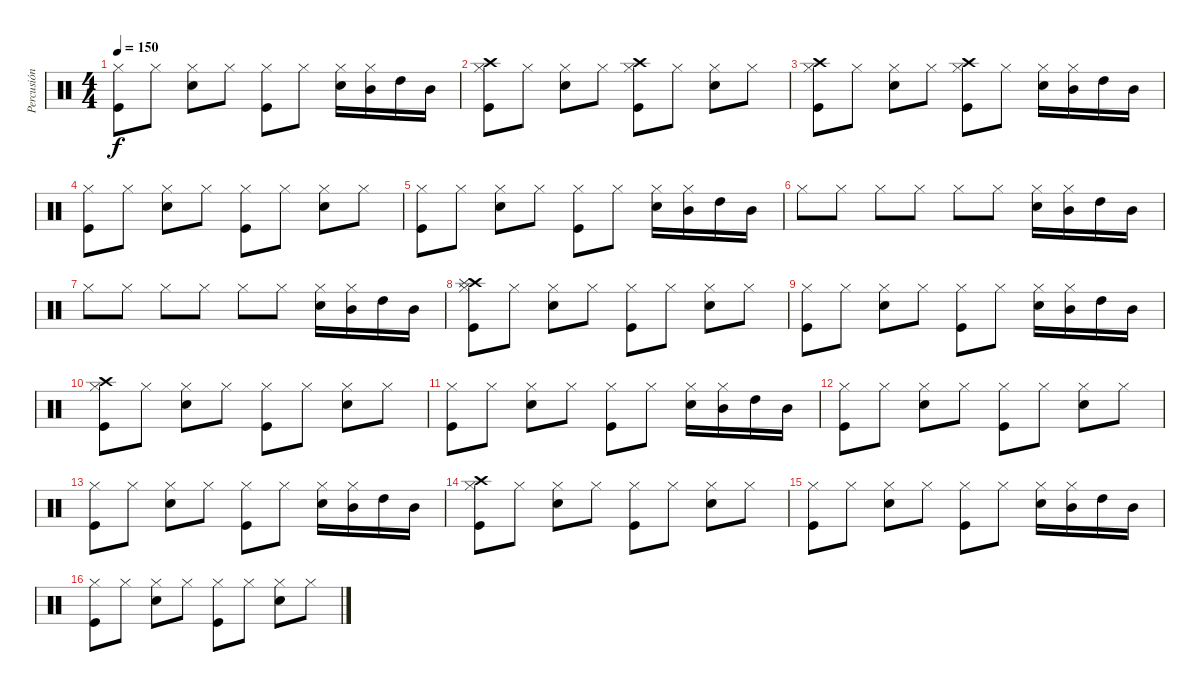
\track ("Percusión" "Percusión") {instrument percussion}
\staff {score}
\articulation defaults
\ts (4 4)
\tempo 150
\clef neutral
\ks c
("Hi-Hat (closed)" "Kick (hit)").8{dy f} "Hi-Hat (closed)".8 ("Hi-Hat (closed)" "Snare (hit) 2").8 "Hi-Hat (closed)".8 ("Hi-Hat (closed)" "Kick (hit)").8 "Hi-Hat (closed)".8 ("Hi-Hat (closed)" "Snare (hit) 2").16 ("Hi-Hat (closed)" "Mid Tom (hit)").16 "High Tom (hit)".16 "Mid Tom (hit)".16 |
("Hi-Hat (closed)" "Crash high (hit)" "Kick (hit)").8 "Hi-Hat (closed)".8 ("Hi-Hat (closed)" "Snare (hit) 2").8 "Hi-Hat (closed)".8 ("Hi-Hat (closed)" "Crash high (hit)" "Kick (hit)").8 "Hi-Hat (closed)".8 ("Hi-Hat (closed)" "Snare (hit) 2").8 "Hi-Hat (closed)".8 |
("Hi-Hat (closed)" "Crash high (hit)" "Kick (hit)").8 "Hi-Hat (closed)".8 ("Hi-Hat (closed)" "Snare (hit) 2").8 "Hi-Hat (closed)".8 ("Hi-Hat (closed)" "Crash high (hit)" "Kick (hit)").8 "Hi-Hat (closed)".8 ("Hi-Hat (closed)" "Snare (hit) 2").16 ("Hi-Hat (closed)" "Mid Tom (hit)").16 "High Tom (hit)".16 "Mid Tom (hit)".16 |
("Hi-Hat (closed)" "Kick (hit)").8 "Hi-Hat (closed)".8 ("Hi-Hat (closed)" "Snare (hit) 2").8 "Hi-Hat (closed)".8 ("Hi-Hat (closed)" "Kick (hit)").8 "Hi-Hat (closed)".8 ("Hi-Hat (closed)" "Snare (hit) 2").8 "Hi-Hat (closed)".8 |
("Hi-Hat (closed)" "Kick (hit)").8 "Hi-Hat (closed)".8 ("Hi-Hat (closed)" "Snare (hit) 2").8 "Hi-Hat (closed)".8 ("Hi-Hat (closed)" "Kick (hit)").8 "Hi-Hat (closed)".8 ("Hi-Hat (closed)" "Snare (hit) 2").16 ("Hi-Hat (closed)" "Mid Tom (hit)").16 "High Tom (hit)".16 "Mid Tom (hit)".16 |
"Hi-Hat (closed)".8 "Hi-Hat (closed)".8 "Hi-Hat (closed)".8 "Hi-Hat (closed)".8 "Hi-Hat (closed)".8 "Hi-Hat (closed)".8 ("Hi-Hat (closed)" "Snare (hit) 2").16 ("Hi-Hat (closed)" "Mid Tom (hit)").16 "High Tom (hit)".16 "Mid Tom (hit)".16 |
"Hi-Hat (closed)".8 "Hi-Hat (closed)".8 "Hi-Hat (closed)".8 "Hi-Hat (closed)".8 "Hi-Hat (closed)".8 "Hi-Hat (closed)".8 ("Hi-Hat (closed)" "Snare (hit) 2").16 ("Hi-Hat (closed)" "Mid Tom (hit)").16 "High Tom (hit)".16 "Mid Tom (hit)".16 |
("Hi-Hat (closed)" "Crash high (hit)" "Splash (hit)" "Kick (hit)").8 "Hi-Hat (closed)".8 ("Hi-Hat (closed)" "Snare (hit) 2").8 "Hi-Hat (closed)".8 ("Hi-Hat (closed)" "Kick (hit)").8 "Hi-Hat (closed)".8 ("Hi-Hat (closed)" "Snare (hit) 2").8 "Hi-Hat (closed)".8 |
("Hi-Hat (closed)" "Kick (hit)").8 "Hi-Hat (closed)".8 ("Hi-Hat (closed)" "Snare (hit) 2").8 "Hi-Hat (closed)".8 ("Hi-Hat (closed)" "Kick (hit)").8 "Hi-Hat (closed)".8 ("Hi-Hat (closed)" "Snare (hit) 2").16 ("Hi-Hat (closed)" "Mid Tom (hit)").16 "High Tom (hit)".16 "Mid Tom (hit)".16 |
("Hi-Hat (closed)" "Crash high (hit)" "Kick (hit)").8 "Hi-Hat (closed)".8 ("Hi-Hat (closed)" "Snare (hit) 2").8 "Hi-Hat (closed)".8 ("Hi-Hat (closed)" "Kick (hit)").8 "Hi-Hat (closed)".8 ("Hi-Hat (closed)" "Snare (hit) 2").8 "Hi-Hat (closed)".8 |
("Hi-Hat (closed)" "Kick (hit)").8 "Hi-Hat (closed)".8 ("Hi-Hat (closed)" "Snare (hit) 2").8 "Hi-Hat (closed)".8 ("Hi-Hat (closed)" "Kick (hit)").8 "Hi-Hat (closed)".8 ("Hi-Hat (closed)" "Snare (hit) 2").16 ("Hi-Hat (closed)" "Mid Tom (hit)").16 "High Tom (hit)".16 "Mid Tom (hit)".16 |
("Hi-Hat (closed)" "Kick (hit)").8 "Hi-Hat (closed)".8 ("Hi-Hat (closed)" "Snare (hit) 2").8 "Hi-Hat (closed)".8 ("Hi-Hat (closed)" "Kick (hit)").8 "Hi-Hat (closed)".8 ("Hi-Hat (closed)" "Snare (hit) 2").8 "Hi-Hat (closed)".8 |
("Hi-Hat (closed)" "Kick (hit)").8 "Hi-Hat (closed)".8 ("Hi-Hat (closed)" "Snare (hit) 2").8 "Hi-Hat (closed)".8 ("Hi-Hat (closed)" "Kick (hit)").8 "Hi-Hat (closed)".8 ("Hi-Hat (closed)" "Snare (hit) 2").16 ("Hi-Hat (closed)" "Mid Tom (hit)").16 "High Tom (hit)".16 "Mid Tom (hit)".16 |
("Hi-Hat (closed)" "Crash high (hit)" "Kick (hit)").8 "Hi-Hat (closed)".8 ("Hi-Hat (closed)" "Snare (hit) 2").8 "Hi-Hat (closed)".8 ("Hi-Hat (closed)" "Kick (hit)").8 "Hi-Hat (closed)".8 ("Hi-Hat (closed)" "Snare (hit) 2").8 "Hi-Hat (closed)".8 |
("Hi-Hat (closed)" "Kick (hit)").8 "Hi-Hat (closed)".8 ("Hi-Hat (closed)" "Snare (hit) 2").8 "Hi-Hat (closed)".8 ("Hi-Hat (closed)" "Kick (hit)").8 "Hi-Hat (closed)".8 ("Hi-Hat (closed)" "Snare (hit) 2").16 ("Hi-Hat (closed)" "Mid Tom (hit)").16 "High Tom (hit)".16 "Mid Tom (hit)".16 |
("Hi-Hat (closed)" "Kick (hit)").8 "Hi-Hat (closed)".8 ("Hi-Hat (closed)" "Snare (hit) 2").8 "Hi-Hat (closed)".8 ("Hi-Hat (closed)" "Kick (hit)").8 "Hi-Hat (closed)".8 ("Hi-Hat (closed)" "Snare (hit) 2").8 "Hi-Hat (closed)".8
